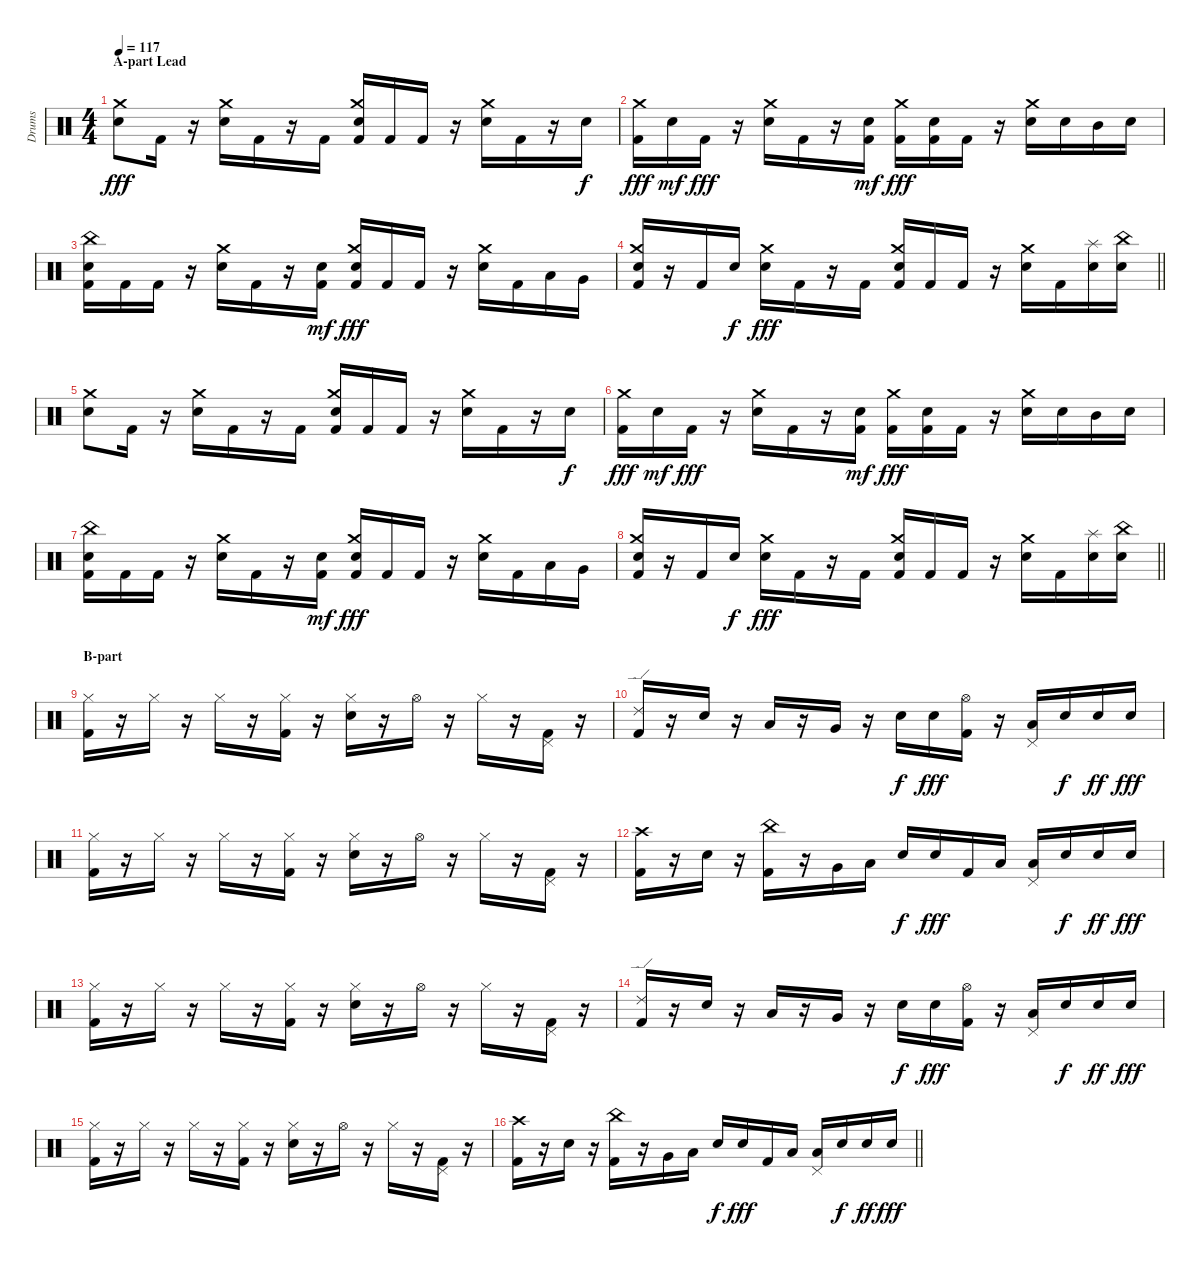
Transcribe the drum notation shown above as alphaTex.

\track ("Drums" "Drums") {instrument percussion}
\staff {score}
\articulation defaults
\ts (4 4)
\section ("" "A-part Lead")
\tempo 117
\clef neutral
\ks c
("Snare (hit) 2" "Crash medium (hit)").8{dy fff} "Kick (hit) 2".16 r.16 ("Snare (hit) 2" "Crash medium (hit)").16 "Kick (hit) 2".16 r.16 "Kick (hit) 2".16 ("Kick (hit) 2" "Snare (hit) 2" "Crash medium (hit)").16 "Kick (hit) 2".16 "Kick (hit) 2".16 r.16 ("Snare (hit) 2" "Crash medium (hit)").16 "Kick (hit) 2".16 r.16 "Snare (hit) 2".16{dy f} |
("Kick (hit) 2" "Crash medium (hit)").16{dy fff} "Snare (hit) 2".16{dy mf} "Kick (hit) 2".16{dy fff} r.16 ("Snare (hit) 2" "Crash medium (hit)").16 "Kick (hit) 2".16 r.16 ("Kick (hit) 2" "Snare (hit) 2").16{dy mf} ("Kick (hit) 2" "Crash medium (hit)").16{dy fff} ("Kick (hit) 2" "Snare (hit) 2").16 "Kick (hit) 2".16 r.16 ("Snare (hit) 2" "Crash medium (hit)").16 "Snare (hit) 2".16 "Mid Tom (hit)".16 "Snare (hit) 2".16 |
("Kick (hit) 2" "Snare (hit) 2" "China (hit)").16 "Kick (hit) 2".16 "Kick (hit) 2".16 r.16 ("Snare (hit) 2" "Crash medium (hit)").16 "Kick (hit) 2".16 r.16 ("Kick (hit) 2" "Snare (hit) 2").16{dy mf} ("Kick (hit) 2" "Snare (hit) 2" "Crash medium (hit)").16{dy fff} "Kick (hit) 2".16 "Kick (hit) 2".16 r.16 ("Snare (hit) 2" "Crash medium (hit)").16 "Kick (hit) 2".16 "Low Tom (hit)".16 "Very Low Tom (hit)".16 |
\barLineRight lightlight
("Kick (hit) 2" "Snare (hit) 2" "Crash medium (hit)").16 r.16 "Kick (hit) 2".16 "Snare (hit) 2".16{dy f} ("Snare (hit) 2" "Crash medium (hit)").16{dy fff} "Kick (hit) 2".16 r.16 "Kick (hit) 2".16 ("Kick (hit) 2" "Snare (hit) 2" "Crash medium (hit)").16 "Kick (hit) 2".16 "Kick (hit) 2".16 r.16 ("Snare (hit) 2" "Crash medium (hit)").16 "Kick (hit) 2".16 ("Snare (hit) 2" "Splash (hit)").16 ("Snare (hit) 2" "China (hit)").16 |
("Snare (hit) 2" "Crash medium (hit)").8 "Kick (hit) 2".16 r.16 ("Snare (hit) 2" "Crash medium (hit)").16 "Kick (hit) 2".16 r.16 "Kick (hit) 2".16 ("Kick (hit) 2" "Snare (hit) 2" "Crash medium (hit)").16 "Kick (hit) 2".16 "Kick (hit) 2".16 r.16 ("Snare (hit) 2" "Crash medium (hit)").16 "Kick (hit) 2".16 r.16 "Snare (hit) 2".16{dy f} |
("Kick (hit) 2" "Crash medium (hit)").16{dy fff} "Snare (hit) 2".16{dy mf} "Kick (hit) 2".16{dy fff} r.16 ("Snare (hit) 2" "Crash medium (hit)").16 "Kick (hit) 2".16 r.16 ("Kick (hit) 2" "Snare (hit) 2").16{dy mf} ("Kick (hit) 2" "Crash medium (hit)").16{dy fff} ("Kick (hit) 2" "Snare (hit) 2").16 "Kick (hit) 2".16 r.16 ("Snare (hit) 2" "Crash medium (hit)").16 "Snare (hit) 2".16 "Mid Tom (hit)".16 "Snare (hit) 2".16 |
("Kick (hit) 2" "Snare (hit) 2" "China (hit)").16 "Kick (hit) 2".16 "Kick (hit) 2".16 r.16 ("Snare (hit) 2" "Crash medium (hit)").16 "Kick (hit) 2".16 r.16 ("Kick (hit) 2" "Snare (hit) 2").16{dy mf} ("Kick (hit) 2" "Snare (hit) 2" "Crash medium (hit)").16{dy fff} "Kick (hit) 2".16 "Kick (hit) 2".16 r.16 ("Snare (hit) 2" "Crash medium (hit)").16 "Kick (hit) 2".16 "Low Tom (hit)".16 "Very Low Tom (hit)".16 |
\barLineRight lightlight
("Kick (hit) 2" "Snare (hit) 2" "Crash medium (hit)").16 r.16 "Kick (hit) 2".16 "Snare (hit) 2".16{dy f} ("Snare (hit) 2" "Crash medium (hit)").16{dy fff} "Kick (hit) 2".16 r.16 "Kick (hit) 2".16 ("Kick (hit) 2" "Snare (hit) 2" "Crash medium (hit)").16 "Kick (hit) 2".16 "Kick (hit) 2".16 r.16 ("Snare (hit) 2" "Crash medium (hit)").16 "Kick (hit) 2".16 ("Snare (hit) 2" "Splash (hit)").16 ("Snare (hit) 2" "China (hit)").16 |
\section ("" "B-part")
("Kick (hit) 2" "Hi-Hat (closed)").16 r.16 "Hi-Hat (closed)".16 r.16 "Hi-Hat (closed)".16 r.16 ("Kick (hit) 2" "Hi-Hat (closed)").16 r.16 ("Snare (hit) 2" "Hi-Hat (closed)").16 r.16 "Hi-Hat (open)".16 r.16 "Hi-Hat (closed)".16 r.16 ("Kick (hit) 2" "Pedal Hi-Hat (hit)").16 r.16 |
("Kick (hit) 2" "Ride (edge) 2").16 r.16 "Snare (hit) 2".16 r.16 "Low Tom (hit)".16 r.16 "Very Low Tom (hit)".16 r.16 "Snare (hit) 2".16{dy f} "Snare (hit) 2".16{dy fff} ("Kick (hit) 2" "Hi-Hat (open)").16 r.16 ("Pedal Hi-Hat (hit)" "Low Tom (hit)").16 "Snare (hit) 2".16{dy f} "Snare (hit) 2".16{dy ff} "Snare (hit) 2".16{dy fff} |
("Kick (hit) 2" "Hi-Hat (closed)").16 r.16 "Hi-Hat (closed)".16 r.16 "Hi-Hat (closed)".16 r.16 ("Kick (hit) 2" "Hi-Hat (closed)").16 r.16 ("Snare (hit) 2" "Hi-Hat (closed)").16 r.16 "Hi-Hat (open)".16 r.16 "Hi-Hat (closed)".16 r.16 ("Kick (hit) 2" "Pedal Hi-Hat (hit)").16 r.16 |
("Kick (hit) 2" "Crash high (hit)").16 r.16 "Snare (hit) 2".16 r.16 ("Kick (hit) 2" "China (hit)").16 r.16 "Very Low Tom (hit)".16 "Low Tom (hit)".16 "Snare (hit) 2".16{dy f} "Snare (hit) 2".16{dy fff} "Kick (hit) 2".16 "Low Floor Tom (hit)".16 ("Pedal Hi-Hat (hit)" "Low Tom (hit)").16 "Snare (hit) 2".16{dy f} "Snare (hit) 2".16{dy ff} "Snare (hit) 2".16{dy fff} |
("Kick (hit) 2" "Hi-Hat (closed)").16 r.16 "Hi-Hat (closed)".16 r.16 "Hi-Hat (closed)".16 r.16 ("Kick (hit) 2" "Hi-Hat (closed)").16 r.16 ("Snare (hit) 2" "Hi-Hat (closed)").16 r.16 "Hi-Hat (open)".16 r.16 "Hi-Hat (closed)".16 r.16 ("Kick (hit) 2" "Pedal Hi-Hat (hit)").16 r.16 |
("Kick (hit) 2" "Ride (edge) 2").16 r.16 "Snare (hit) 2".16 r.16 "Low Tom (hit)".16 r.16 "Very Low Tom (hit)".16 r.16 "Snare (hit) 2".16{dy f} "Snare (hit) 2".16{dy fff} ("Kick (hit) 2" "Hi-Hat (open)").16 r.16 ("Pedal Hi-Hat (hit)" "Low Tom (hit)").16 "Snare (hit) 2".16{dy f} "Snare (hit) 2".16{dy ff} "Snare (hit) 2".16{dy fff} |
("Kick (hit) 2" "Hi-Hat (closed)").16 r.16 "Hi-Hat (closed)".16 r.16 "Hi-Hat (closed)".16 r.16 ("Kick (hit) 2" "Hi-Hat (closed)").16 r.16 ("Snare (hit) 2" "Hi-Hat (closed)").16 r.16 "Hi-Hat (open)".16 r.16 "Hi-Hat (closed)".16 r.16 ("Kick (hit) 2" "Pedal Hi-Hat (hit)").16 r.16 |
\barLineRight lightlight
("Kick (hit) 2" "Crash high (hit)").16 r.16 "Snare (hit) 2".16 r.16 ("Kick (hit) 2" "China (hit)").16 r.16 "Very Low Tom (hit)".16 "Low Tom (hit)".16 "Snare (hit) 2".16{dy f} "Snare (hit) 2".16{dy fff} "Kick (hit) 2".16 "Low Floor Tom (hit)".16 ("Pedal Hi-Hat (hit)" "Low Tom (hit)").16 "Snare (hit) 2".16{dy f} "Snare (hit) 2".16{dy ff} "Snare (hit) 2".16{dy fff}
